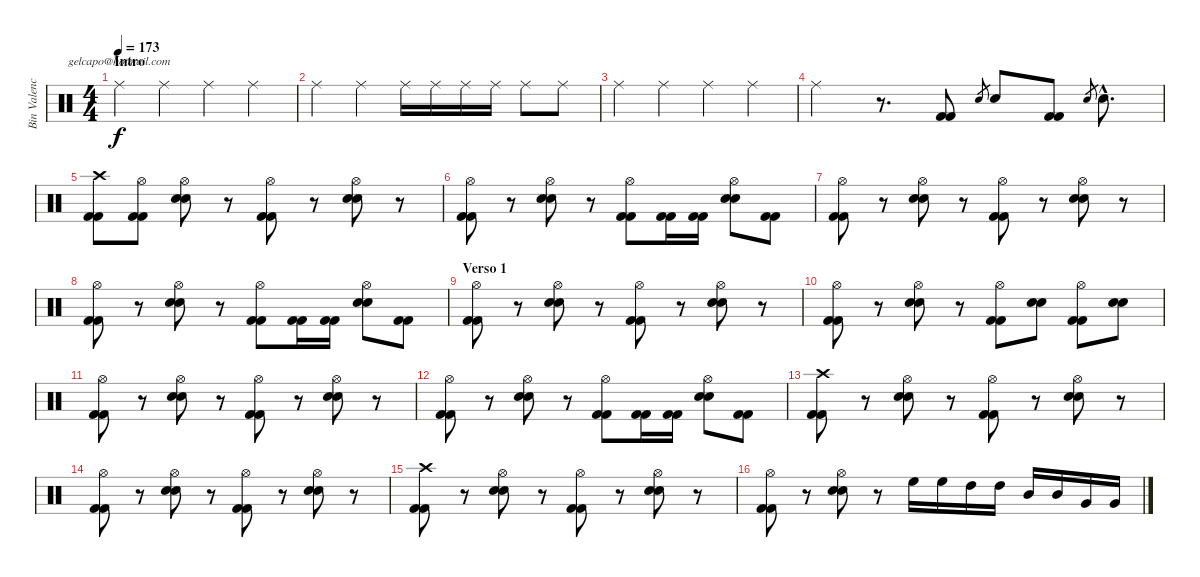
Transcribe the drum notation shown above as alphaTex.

\track ("Bin Valencia (Bateria)" "Bin Valenc") {instrument percussion}
\staff {score}
\articulation defaults
\chord ("gelcapo@hotmail.com") {firstfret 0}
\ts (4 4)
\section ("" "Intro")
\tempo 173
\clef neutral
\ks c "Ride (middle)".4{ch "gelcapo@hotmail.com" dy f} "Ride (middle)".4 "Ride (middle)".4 "Ride (middle)".4
|
"Ride (middle)".4 "Ride (middle)".4 "Ride (middle)".16 "Ride (middle)".16 "Ride (middle)".16 "Ride (middle)".16 "Ride (middle)".8 "Ride (middle)".8 |
"Ride (middle)".4 "Ride (middle)".4 "Ride (middle)".4 "Ride (middle)".4 |
"Ride (middle)".4 r.8{d} ("Kick (hit) 2" "Kick (hit) 2").8 "Snare (hit) 2".8{gr} "Snare (hit) 2".8 ("Kick (hit) 2" "Kick (hit) 2").8 "Snare (hit) 2".8{gr} "Snare (hit) 2"{hac}.8{d} |
("Crash high (hit)" "Kick (hit) 2" "Kick (hit) 2").8 ("Hi-Hat (open)" "Kick (hit) 2" "Kick (hit) 2").8 ("Hi-Hat (open)" "Snare (hit) 2" "Snare (hit) 2").8 r.8 ("Hi-Hat (open)" "Kick (hit) 2" "Kick (hit) 2").8 r.8 ("Hi-Hat (open)" "Snare (hit) 2" "Snare (hit) 2").8 r.8 |
("Hi-Hat (open)" "Kick (hit) 2" "Kick (hit) 2").8 r.8 ("Hi-Hat (open)" "Snare (hit) 2" "Snare (hit) 2").8 r.8 ("Hi-Hat (open)" "Kick (hit) 2" "Kick (hit) 2").8 ("Kick (hit) 2" "Kick (hit) 2").16 ("Kick (hit) 2" "Kick (hit) 2").16 ("Hi-Hat (open)" "Snare (hit) 2" "Snare (hit) 2").8 ("Kick (hit) 2" "Kick (hit) 2").8 |
("Hi-Hat (open)" "Kick (hit) 2" "Kick (hit) 2").8 r.8 ("Hi-Hat (open)" "Snare (hit) 2" "Snare (hit) 2").8 r.8 ("Hi-Hat (open)" "Kick (hit) 2" "Kick (hit) 2").8 r.8 ("Hi-Hat (open)" "Snare (hit) 2" "Snare (hit) 2").8 r.8 |
("Hi-Hat (open)" "Kick (hit) 2" "Kick (hit) 2").8 r.8 ("Hi-Hat (open)" "Snare (hit) 2" "Snare (hit) 2").8 r.8 ("Hi-Hat (open)" "Kick (hit) 2" "Kick (hit) 2").8 ("Kick (hit) 2" "Kick (hit) 2").16 ("Kick (hit) 2" "Kick (hit) 2").16 ("Hi-Hat (open)" "Snare (hit) 2" "Snare (hit) 2").8 ("Kick (hit) 2" "Kick (hit) 2").8 |
\section ("" "Verso 1")
("Hi-Hat (open)" "Kick (hit) 2" "Kick (hit) 2").8 r.8 ("Hi-Hat (open)" "Snare (hit) 2" "Snare (hit) 2").8 r.8 ("Hi-Hat (open)" "Kick (hit) 2" "Kick (hit) 2").8 r.8 ("Hi-Hat (open)" "Snare (hit) 2" "Snare (hit) 2").8 r.8 |
("Hi-Hat (open)" "Kick (hit) 2" "Kick (hit) 2").8 r.8 ("Hi-Hat (open)" "Snare (hit) 2" "Snare (hit) 2").8 r.8 ("Hi-Hat (open)" "Kick (hit) 2" "Kick (hit) 2").8 ("Snare (hit) 2" "Snare (hit) 2").8 ("Hi-Hat (open)" "Kick (hit) 2" "Kick (hit) 2").8 ("Snare (hit) 2" "Snare (hit) 2").8 |
("Hi-Hat (open)" "Kick (hit) 2" "Kick (hit) 2").8 r.8 ("Hi-Hat (open)" "Snare (hit) 2" "Snare (hit) 2").8 r.8 ("Hi-Hat (open)" "Kick (hit) 2" "Kick (hit) 2").8 r.8 ("Hi-Hat (open)" "Snare (hit) 2" "Snare (hit) 2").8 r.8 |
("Hi-Hat (open)" "Kick (hit) 2" "Kick (hit) 2").8 r.8 ("Hi-Hat (open)" "Snare (hit) 2" "Snare (hit) 2").8 r.8 ("Hi-Hat (open)" "Kick (hit) 2" "Kick (hit) 2").8 ("Kick (hit) 2" "Kick (hit) 2").16 ("Kick (hit) 2" "Kick (hit) 2").16 ("Hi-Hat (open)" "Snare (hit) 2" "Snare (hit) 2").8 ("Kick (hit) 2" "Kick (hit) 2").8 |
("Crash high (hit)" "Kick (hit) 2" "Kick (hit) 2").8 r.8 ("Hi-Hat (open)" "Snare (hit) 2" "Snare (hit) 2").8 r.8 ("Hi-Hat (open)" "Kick (hit) 2" "Kick (hit) 2").8 r.8 ("Hi-Hat (open)" "Snare (hit) 2" "Snare (hit) 2").8 r.8 |
("Hi-Hat (open)" "Kick (hit) 2" "Kick (hit) 2").8 r.8 ("Hi-Hat (open)" "Snare (hit) 2" "Snare (hit) 2").8 r.8 ("Hi-Hat (open)" "Kick (hit) 2" "Kick (hit) 2").8 r.8 ("Hi-Hat (open)" "Snare (hit) 2" "Snare (hit) 2").8 r.8 |
("Crash high (hit)" "Kick (hit) 2" "Kick (hit) 2").8 r.8 ("Hi-Hat (open)" "Snare (hit) 2" "Snare (hit) 2").8 r.8 ("Hi-Hat (open)" "Kick (hit) 2" "Kick (hit) 2").8 r.8 ("Hi-Hat (open)" "Snare (hit) 2" "Snare (hit) 2").8 r.8 |
("Hi-Hat (open)" "Kick (hit) 2" "Kick (hit) 2").8 r.8 ("Hi-Hat (open)" "Snare (hit) 2" "Snare (hit) 2").8 r.8 "High Floor Tom (hit)".16 "High Floor Tom (hit)".16 "High Tom (hit)".16 "High Tom (hit)".16 "Mid Tom (hit)".16 "Mid Tom (hit)".16 "Very Low Tom (hit)".16 "Very Low Tom (hit)".16
